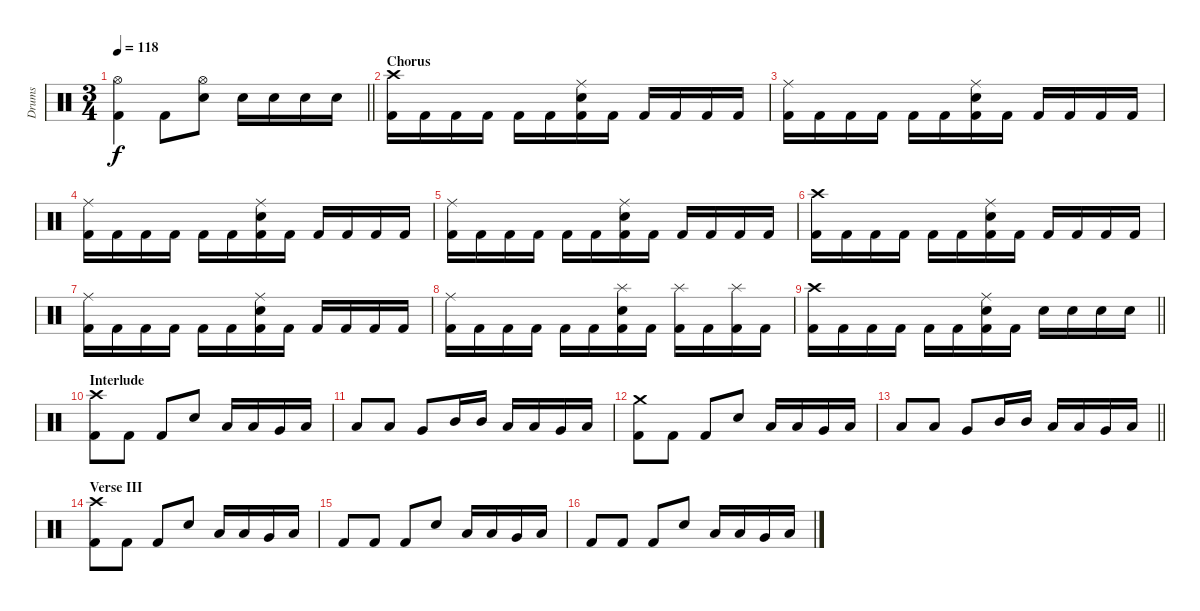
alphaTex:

\track ("Drums" "Drums") {instrument percussion}
\staff {score}
\articulation defaults
\ts (3 4)
\tempo 118
\clef neutral
\barLineRight lightlight
\ks c
("Hi-Hat (open)" "Kick (hit) 2").4{dy f} "Kick (hit) 2".8 ("Hi-Hat (open)" "Snare (hit) 2").8 "Snare (hit) 2".16 "Snare (hit) 2".16 "Snare (hit) 2".16 "Snare (hit) 2".16 |
\section ("" "Chorus")
("Crash high (hit)" "Kick (hit) 2").16 "Kick (hit) 2".16 "Kick (hit) 2".16 "Kick (hit) 2".16 "Kick (hit) 2".16 "Kick (hit) 2".16 ("Ride (middle)" "Snare (hit) 2" "Kick (hit) 2").16 "Kick (hit) 2".16 "Kick (hit) 2".16 "Kick (hit) 2".16 "Kick (hit) 2".16 "Kick (hit) 2".16 |
("Ride (middle)" "Kick (hit) 2").16 "Kick (hit) 2".16 "Kick (hit) 2".16 "Kick (hit) 2".16 "Kick (hit) 2".16 "Kick (hit) 2".16 ("Ride (middle)" "Snare (hit) 2" "Kick (hit) 2").16 "Kick (hit) 2".16 "Kick (hit) 2".16 "Kick (hit) 2".16 "Kick (hit) 2".16 "Kick (hit) 2".16 |
("Ride (middle)" "Kick (hit) 2").16 "Kick (hit) 2".16 "Kick (hit) 2".16 "Kick (hit) 2".16 "Kick (hit) 2".16 "Kick (hit) 2".16 ("Ride (middle)" "Snare (hit) 2" "Kick (hit) 2").16 "Kick (hit) 2".16 "Kick (hit) 2".16 "Kick (hit) 2".16 "Kick (hit) 2".16 "Kick (hit) 2".16 |
("Ride (middle)" "Kick (hit) 2").16 "Kick (hit) 2".16 "Kick (hit) 2".16 "Kick (hit) 2".16 "Kick (hit) 2".16 "Kick (hit) 2".16 ("Ride (middle)" "Snare (hit) 2" "Kick (hit) 2").16 "Kick (hit) 2".16 "Kick (hit) 2".16 "Kick (hit) 2".16 "Kick (hit) 2".16 "Kick (hit) 2".16 |
("Crash high (hit)" "Kick (hit) 2").16 "Kick (hit) 2".16 "Kick (hit) 2".16 "Kick (hit) 2".16 "Kick (hit) 2".16 "Kick (hit) 2".16 ("Ride (middle)" "Snare (hit) 2" "Kick (hit) 2").16 "Kick (hit) 2".16 "Kick (hit) 2".16 "Kick (hit) 2".16 "Kick (hit) 2".16 "Kick (hit) 2".16 |
("Ride (middle)" "Kick (hit) 2").16 "Kick (hit) 2".16 "Kick (hit) 2".16 "Kick (hit) 2".16 "Kick (hit) 2".16 "Kick (hit) 2".16 ("Ride (middle)" "Snare (hit) 2" "Kick (hit) 2").16 "Kick (hit) 2".16 "Kick (hit) 2".16 "Kick (hit) 2".16 "Kick (hit) 2".16 "Kick (hit) 2".16 |
("Ride (middle)" "Kick (hit) 2").16 "Kick (hit) 2".16 "Kick (hit) 2".16 "Kick (hit) 2".16 "Kick (hit) 2".16 "Kick (hit) 2".16 ("Splash (hit)" "Snare (hit) 2" "Kick (hit) 2").16 "Kick (hit) 2".16 ("Splash (hit)" "Kick (hit) 2").16 "Kick (hit) 2".16 ("Splash (hit)" "Kick (hit) 2").16 "Kick (hit) 2".16 |
\barLineRight lightlight
("Crash high (hit)" "Kick (hit) 2").16 "Kick (hit) 2".16 "Kick (hit) 2".16 "Kick (hit) 2".16 "Kick (hit) 2".16 "Kick (hit) 2".16 ("Ride (middle)" "Snare (hit) 2" "Kick (hit) 2").16 "Kick (hit) 2".16 "Snare (hit) 2".16 "Snare (hit) 2".16 "Snare (hit) 2".16 "Snare (hit) 2".16 |
\section ("" "Interlude")
("Crash high (hit)" "Kick (hit) 2").8 "Kick (hit) 2".8 "Kick (hit) 2".8 "Snare (hit) 2".8 "Low Tom (hit)".16 "Low Tom (hit)".16 "Very Low Tom (hit)".16 "Low Floor Tom (hit)".16 |
"Low Floor Tom (hit)".8 "Low Floor Tom (hit)".8 "Very Low Tom (hit)".8 "Mid Tom (hit)".16 "Mid Tom (hit)".16 "Low Tom (hit)".16 "Low Tom (hit)".16 "Very Low Tom (hit)".16 "Low Floor Tom (hit)".16 |
("Crash medium (hit)" "Kick (hit) 2").8 "Kick (hit) 2".8 "Kick (hit) 2".8 "Snare (hit) 2".8 "Low Tom (hit)".16 "Low Tom (hit)".16 "Very Low Tom (hit)".16 "Low Floor Tom (hit)".16 |
\barLineRight lightlight "Low Floor Tom (hit)".8 "Low Floor Tom (hit)".8 "Very Low Tom (hit)".8 "Mid Tom (hit)".16 "Mid Tom (hit)".16 "Low Tom (hit)".16 "Low Tom (hit)".16 "Very Low Tom (hit)".16 "Low Floor Tom (hit)".16
|
\section ("" "Verse III")
("Crash high (hit)" "Kick (hit) 2").8 "Kick (hit) 2".8 "Kick (hit) 2".8 "Snare (hit) 2".8 "Low Tom (hit)".16 "Low Tom (hit)".16 "Very Low Tom (hit)".16 "Low Floor Tom (hit)".16 |
"Kick (hit) 2".8 "Kick (hit) 2".8 "Kick (hit) 2".8 "Snare (hit) 2".8 "Low Tom (hit)".16 "Low Tom (hit)".16 "Very Low Tom (hit)".16 "Low Floor Tom (hit)".16 |
"Kick (hit) 2".8 "Kick (hit) 2".8 "Kick (hit) 2".8 "Snare (hit) 2".8 "Low Tom (hit)".16 "Low Tom (hit)".16 "Very Low Tom (hit)".16 "Low Floor Tom (hit)".16
